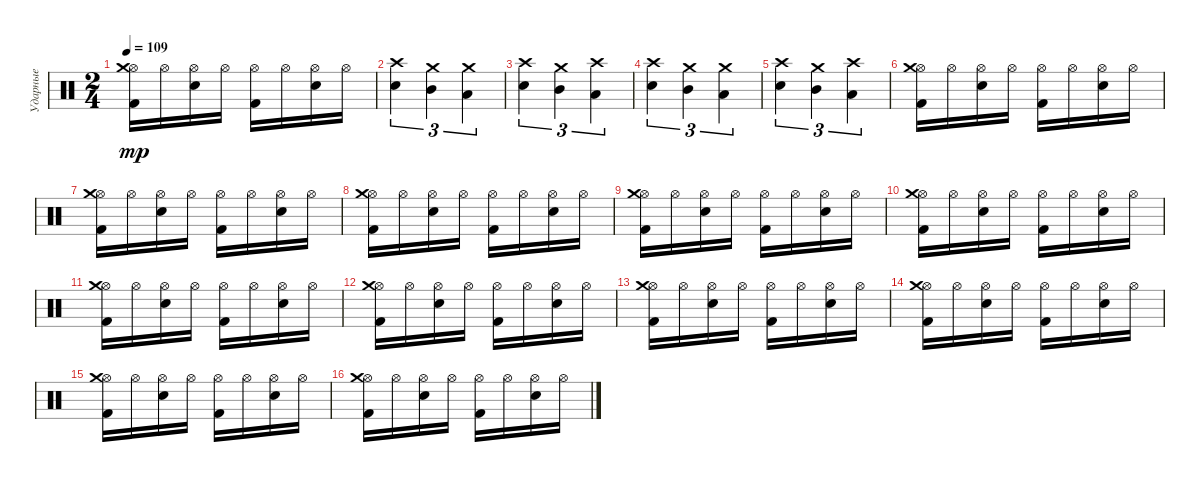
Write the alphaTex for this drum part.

\track ("Ударные" "Ударные") {instrument percussion}
\staff {score}
\articulation defaults
\ts (2 4)
\tempo 109
\clef neutral
\ks c
("Kick (hit) 2" "Hi-Hat (open)" "Crash medium (hit)").16{dy mp} "Hi-Hat (open)".16 ("Electric Snare (hit)" "Hi-Hat (open)").16 "Hi-Hat (open)".16 ("Kick (hit) 2" "Hi-Hat (open)").16 "Hi-Hat (open)".16 ("Electric Snare (hit)" "Hi-Hat (open)").16 "Hi-Hat (open)".16 |
("Electric Snare (hit)" "Crash high (hit)").4{tu (3 2)} ("Mid Tom (hit)" "Crash medium (hit)").4{tu (3 2)} ("Low Tom (hit)" "Crash medium (hit)").4{tu (3 2)} |
("Electric Snare (hit)" "Crash high (hit)").4{tu (3 2)} ("Mid Tom (hit)" "Crash medium (hit)").4{tu (3 2)} ("Low Tom (hit)" "Crash high (hit)").4{tu (3 2)} |
("Electric Snare (hit)" "Crash high (hit)").4{tu (3 2)} ("Mid Tom (hit)" "Crash medium (hit)").4{tu (3 2)} ("Low Tom (hit)" "Crash medium (hit)").4{tu (3 2)} |
("Electric Snare (hit)" "Crash high (hit)").4{tu (3 2)} ("Mid Tom (hit)" "Crash medium (hit)").4{tu (3 2)} ("Low Tom (hit)" "Crash high (hit)").4{tu (3 2)} |
("Kick (hit) 2" "Hi-Hat (open)" "Crash medium (hit)").16 "Hi-Hat (open)".16 ("Electric Snare (hit)" "Hi-Hat (open)").16 "Hi-Hat (open)".16 ("Kick (hit) 2" "Hi-Hat (open)").16 "Hi-Hat (open)".16 ("Electric Snare (hit)" "Hi-Hat (open)").16 "Hi-Hat (open)".16 |
("Kick (hit) 2" "Hi-Hat (open)" "Crash medium (hit)").16 "Hi-Hat (open)".16 ("Electric Snare (hit)" "Hi-Hat (open)").16 "Hi-Hat (open)".16 ("Kick (hit) 2" "Hi-Hat (open)").16 "Hi-Hat (open)".16 ("Electric Snare (hit)" "Hi-Hat (open)").16 "Hi-Hat (open)".16 |
("Kick (hit) 2" "Hi-Hat (open)" "Crash medium (hit)").16 "Hi-Hat (open)".16 ("Electric Snare (hit)" "Hi-Hat (open)").16 "Hi-Hat (open)".16 ("Kick (hit) 2" "Hi-Hat (open)").16 "Hi-Hat (open)".16 ("Electric Snare (hit)" "Hi-Hat (open)").16 "Hi-Hat (open)".16 |
("Kick (hit) 2" "Hi-Hat (open)" "Crash medium (hit)").16 "Hi-Hat (open)".16 ("Electric Snare (hit)" "Hi-Hat (open)").16 "Hi-Hat (open)".16 ("Kick (hit) 2" "Hi-Hat (open)").16 "Hi-Hat (open)".16 ("Electric Snare (hit)" "Hi-Hat (open)").16 "Hi-Hat (open)".16 |
("Kick (hit) 2" "Hi-Hat (open)" "Crash medium (hit)").16 "Hi-Hat (open)".16 ("Electric Snare (hit)" "Hi-Hat (open)").16 "Hi-Hat (open)".16 ("Kick (hit) 2" "Hi-Hat (open)").16 "Hi-Hat (open)".16 ("Electric Snare (hit)" "Hi-Hat (open)").16 "Hi-Hat (open)".16 |
("Kick (hit) 2" "Hi-Hat (open)" "Crash medium (hit)").16 "Hi-Hat (open)".16 ("Electric Snare (hit)" "Hi-Hat (open)").16 "Hi-Hat (open)".16 ("Kick (hit) 2" "Hi-Hat (open)").16 "Hi-Hat (open)".16 ("Electric Snare (hit)" "Hi-Hat (open)").16 "Hi-Hat (open)".16 |
("Kick (hit) 2" "Hi-Hat (open)" "Crash medium (hit)").16 "Hi-Hat (open)".16 ("Electric Snare (hit)" "Hi-Hat (open)").16 "Hi-Hat (open)".16 ("Kick (hit) 2" "Hi-Hat (open)").16 "Hi-Hat (open)".16 ("Electric Snare (hit)" "Hi-Hat (open)").16 "Hi-Hat (open)".16 |
("Kick (hit) 2" "Hi-Hat (open)" "Crash medium (hit)").16 "Hi-Hat (open)".16 ("Electric Snare (hit)" "Hi-Hat (open)").16 "Hi-Hat (open)".16 ("Kick (hit) 2" "Hi-Hat (open)").16 "Hi-Hat (open)".16 ("Electric Snare (hit)" "Hi-Hat (open)").16 "Hi-Hat (open)".16 |
("Kick (hit) 2" "Hi-Hat (open)" "Crash medium (hit)").16 "Hi-Hat (open)".16 ("Electric Snare (hit)" "Hi-Hat (open)").16 "Hi-Hat (open)".16 ("Kick (hit) 2" "Hi-Hat (open)").16 "Hi-Hat (open)".16 ("Electric Snare (hit)" "Hi-Hat (open)").16 "Hi-Hat (open)".16 |
("Kick (hit) 2" "Hi-Hat (open)" "Crash medium (hit)").16 "Hi-Hat (open)".16 ("Electric Snare (hit)" "Hi-Hat (open)").16 "Hi-Hat (open)".16 ("Kick (hit) 2" "Hi-Hat (open)").16 "Hi-Hat (open)".16 ("Electric Snare (hit)" "Hi-Hat (open)").16 "Hi-Hat (open)".16 |
("Kick (hit) 2" "Hi-Hat (open)" "Crash medium (hit)").16 "Hi-Hat (open)".16 ("Electric Snare (hit)" "Hi-Hat (open)").16 "Hi-Hat (open)".16 ("Kick (hit) 2" "Hi-Hat (open)").16 "Hi-Hat (open)".16 ("Electric Snare (hit)" "Hi-Hat (open)").16 "Hi-Hat (open)".16
